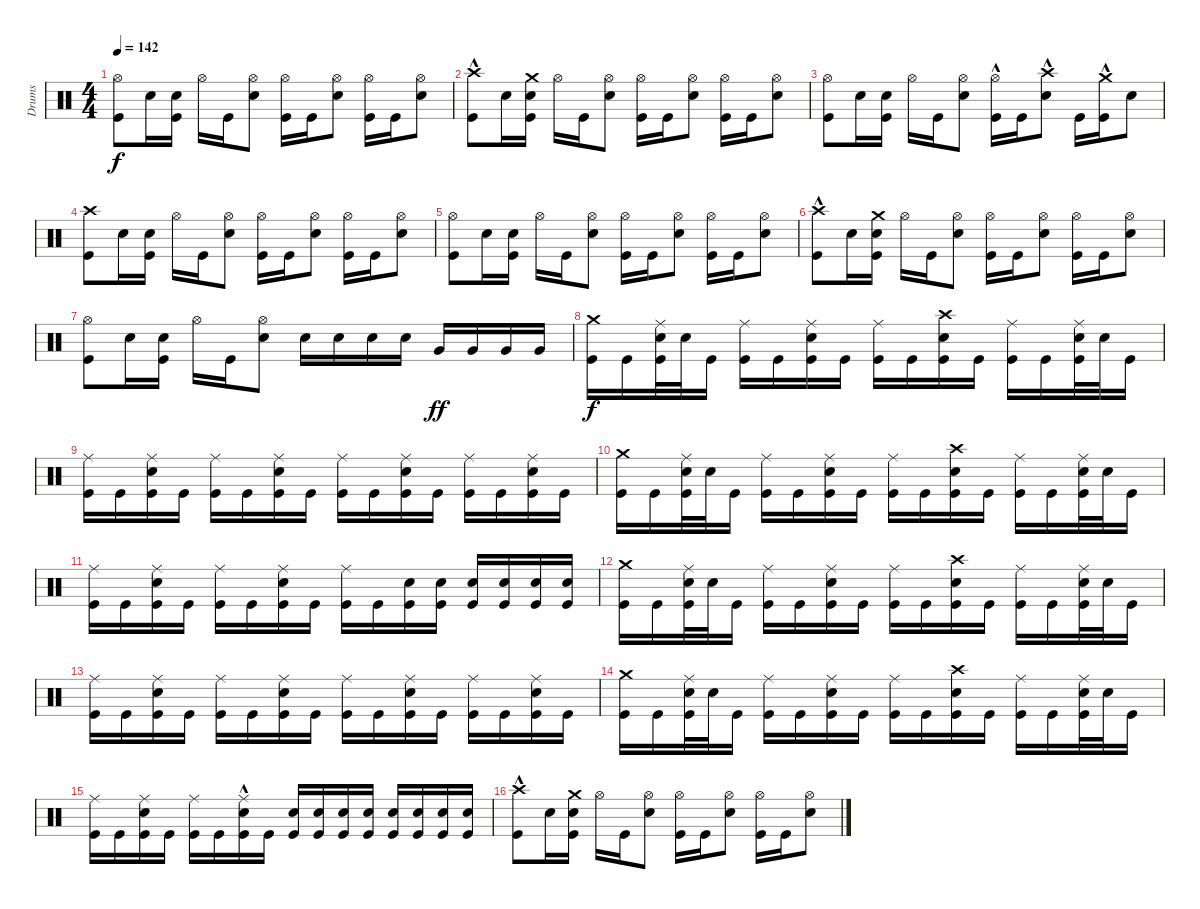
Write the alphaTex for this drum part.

\track ("Drums" "Drums") {instrument percussion}
\staff {score}
\articulation defaults
\ts (4 4)
\tempo 142
\clef neutral
\ks c
("Hi-Hat (open)" "Kick (hit)").8{dy f} "Snare (hit) 2".16 ("Snare (hit) 2" "Kick (hit)").16 "Hi-Hat (open)".16 "Kick (hit)".16 ("Hi-Hat (open)" "Snare (hit) 2").8 ("Hi-Hat (open)" "Kick (hit)").16 "Kick (hit)".16 ("Hi-Hat (open)" "Snare (hit) 2").8 ("Hi-Hat (open)" "Kick (hit)").16 "Kick (hit)".16 ("Hi-Hat (open)" "Snare (hit) 2").8 |
("Crash high (hit)"{hac} "Kick (hit)").8 "Snare (hit) 2".16 ("Crash medium (hit)" "Snare (hit) 2" "Kick (hit)").16 "Hi-Hat (open)".16 "Kick (hit)".16 ("Hi-Hat (open)" "Snare (hit) 2").8 ("Hi-Hat (open)" "Kick (hit)").16 "Kick (hit)".16 ("Hi-Hat (open)" "Snare (hit) 2").8 ("Hi-Hat (open)" "Kick (hit)").16 "Kick (hit)".16 ("Hi-Hat (open)" "Snare (hit) 2").8 |
("Hi-Hat (open)" "Kick (hit)").8 "Snare (hit) 2".16 ("Snare (hit) 2" "Kick (hit)").16 "Hi-Hat (open)".16 "Kick (hit)".16 ("Hi-Hat (open)" "Snare (hit) 2").8 ("Hi-Hat (open)"{hac} "Kick (hit)").16 "Kick (hit)".16 ("Crash high (hit)"{hac} "Snare (hit) 2").8 "Kick (hit)".16 ("Crash medium (hit)"{hac} "Kick (hit)").16 "Snare (hit) 2".8 |
("Crash high (hit)" "Kick (hit)").8 "Snare (hit) 2".16 ("Snare (hit) 2" "Kick (hit)").16 "Hi-Hat (open)".16 "Kick (hit)".16 ("Hi-Hat (open)" "Snare (hit) 2").8 ("Hi-Hat (open)" "Kick (hit)").16 "Kick (hit)".16 ("Hi-Hat (open)" "Snare (hit) 2").8 ("Hi-Hat (open)" "Kick (hit)").16 "Kick (hit)".16 ("Hi-Hat (open)" "Snare (hit) 2").8 |
("Hi-Hat (open)" "Kick (hit)").8 "Snare (hit) 2".16 ("Snare (hit) 2" "Kick (hit)").16 "Hi-Hat (open)".16 "Kick (hit)".16 ("Hi-Hat (open)" "Snare (hit) 2").8 ("Hi-Hat (open)" "Kick (hit)").16 "Kick (hit)".16 ("Hi-Hat (open)" "Snare (hit) 2").8 ("Hi-Hat (open)" "Kick (hit)").16 "Kick (hit)".16 ("Hi-Hat (open)" "Snare (hit) 2").8 |
("Crash high (hit)"{hac} "Kick (hit)").8 "Snare (hit) 2".16 ("Crash medium (hit)" "Snare (hit) 2" "Kick (hit)").16 "Hi-Hat (open)".16 "Kick (hit)".16 ("Hi-Hat (open)" "Snare (hit) 2").8 ("Hi-Hat (open)" "Kick (hit)").16 "Kick (hit)".16 ("Hi-Hat (open)" "Snare (hit) 2").8 ("Hi-Hat (open)" "Kick (hit)").16 "Kick (hit)".16 ("Hi-Hat (open)" "Snare (hit) 2").8 |
("Hi-Hat (open)" "Kick (hit)").8 "Snare (hit) 2".16 ("Snare (hit) 2" "Kick (hit)").16 "Hi-Hat (open)".16 "Kick (hit)".16 ("Hi-Hat (open)" "Snare (hit) 2").8 "Snare (hit) 2".16 "Snare (hit) 2".16 "Snare (hit) 2".16 "Snare (hit) 2".16 "Very Low Tom (hit)".16{dy ff} "Very Low Tom (hit)".16 "Very Low Tom (hit)".16 "Very Low Tom (hit)".16 |
("Crash medium (hit)" "Kick (hit)").16{dy f} "Kick (hit)".16 ("Ride (middle)" "Snare (hit) 2" "Kick (hit)").32 "Snare (hit) 2".32 "Kick (hit)".16 ("Ride (middle)" "Kick (hit)").16 "Kick (hit)".16 ("Ride (middle)" "Snare (hit) 2" "Kick (hit)").16 "Kick (hit)".16 ("Ride (middle)" "Kick (hit)").16 "Kick (hit)".16 ("Crash high (hit)" "Snare (hit) 2" "Kick (hit)").16 "Kick (hit)".16 ("Ride (middle)" "Kick (hit)").16 "Kick (hit)".16 ("Ride (middle)" "Snare (hit) 2" "Kick (hit)").32 "Snare (hit) 2".32 "Kick (hit)".16 |
("Ride (middle)" "Kick (hit)").16 "Kick (hit)".16 ("Ride (middle)" "Snare (hit) 2" "Kick (hit)").16 "Kick (hit)".16 ("Ride (middle)" "Kick (hit)").16 "Kick (hit)".16 ("Ride (middle)" "Snare (hit) 2" "Kick (hit)").16 "Kick (hit)".16 ("Ride (middle)" "Kick (hit)").16 "Kick (hit)".16 ("Ride (middle)" "Snare (hit) 2" "Kick (hit)").16 "Kick (hit)".16 ("Ride (middle)" "Kick (hit)").16 "Kick (hit)".16 ("Ride (middle)" "Snare (hit) 2" "Kick (hit)").16 "Kick (hit)".16 |
("Crash medium (hit)" "Kick (hit)").16 "Kick (hit)".16 ("Ride (middle)" "Snare (hit) 2" "Kick (hit)").32 "Snare (hit) 2".32 "Kick (hit)".16 ("Ride (middle)" "Kick (hit)").16 "Kick (hit)".16 ("Ride (middle)" "Snare (hit) 2" "Kick (hit)").16 "Kick (hit)".16 ("Ride (middle)" "Kick (hit)").16 "Kick (hit)".16 ("Crash high (hit)" "Snare (hit) 2" "Kick (hit)").16 "Kick (hit)".16 ("Ride (middle)" "Kick (hit)").16 "Kick (hit)".16 ("Ride (middle)" "Snare (hit) 2" "Kick (hit)").32 "Snare (hit) 2".32 "Kick (hit)".16 |
("Ride (middle)" "Kick (hit)").16 "Kick (hit)".16 ("Ride (middle)" "Snare (hit) 2" "Kick (hit)").16 "Kick (hit)".16 ("Ride (middle)" "Kick (hit)").16 "Kick (hit)".16 ("Ride (middle)" "Snare (hit) 2" "Kick (hit)").16 "Kick (hit)".16 ("Ride (middle)" "Kick (hit)").16 "Kick (hit)".16 ("Snare (hit) 2" "Kick (hit)").16 ("Snare (hit) 2" "Kick (hit)").16 ("Snare (hit) 2" "Kick (hit)").16 ("Snare (hit) 2" "Kick (hit)").16 ("Snare (hit) 2" "Kick (hit)").16 ("Snare (hit) 2" "Kick (hit)").16 |
("Crash medium (hit)" "Kick (hit)").16 "Kick (hit)".16 ("Ride (middle)" "Snare (hit) 2" "Kick (hit)").32 "Snare (hit) 2".32 "Kick (hit)".16 ("Ride (middle)" "Kick (hit)").16 "Kick (hit)".16 ("Ride (middle)" "Snare (hit) 2" "Kick (hit)").16 "Kick (hit)".16 ("Ride (middle)" "Kick (hit)").16 "Kick (hit)".16 ("Crash high (hit)" "Snare (hit) 2" "Kick (hit)").16 "Kick (hit)".16 ("Ride (middle)" "Kick (hit)").16 "Kick (hit)".16 ("Ride (middle)" "Snare (hit) 2" "Kick (hit)").32 "Snare (hit) 2".32 "Kick (hit)".16 |
("Ride (middle)" "Kick (hit)").16 "Kick (hit)".16 ("Ride (middle)" "Snare (hit) 2" "Kick (hit)").16 "Kick (hit)".16 ("Ride (middle)" "Kick (hit)").16 "Kick (hit)".16 ("Ride (middle)" "Snare (hit) 2" "Kick (hit)").16 "Kick (hit)".16 ("Ride (middle)" "Kick (hit)").16 "Kick (hit)".16 ("Ride (middle)" "Snare (hit) 2" "Kick (hit)").16 "Kick (hit)".16 ("Ride (middle)" "Kick (hit)").16 "Kick (hit)".16 ("Ride (middle)" "Snare (hit) 2" "Kick (hit)").16 "Kick (hit)".16 |
("Crash medium (hit)" "Kick (hit)").16 "Kick (hit)".16 ("Ride (middle)" "Snare (hit) 2" "Kick (hit)").32 "Snare (hit) 2".32 "Kick (hit)".16 ("Ride (middle)" "Kick (hit)").16 "Kick (hit)".16 ("Ride (middle)" "Snare (hit) 2" "Kick (hit)").16 "Kick (hit)".16 ("Ride (middle)" "Kick (hit)").16 "Kick (hit)".16 ("Crash high (hit)" "Snare (hit) 2" "Kick (hit)").16 "Kick (hit)".16 ("Ride (middle)" "Kick (hit)").16 "Kick (hit)".16 ("Ride (middle)" "Snare (hit) 2" "Kick (hit)").32 "Snare (hit) 2".32 "Kick (hit)".16 |
("Ride (middle)" "Kick (hit)").16 "Kick (hit)".16 ("Ride (middle)" "Snare (hit) 2" "Kick (hit)").16 "Kick (hit)".16 ("Ride (middle)" "Kick (hit)").16 "Kick (hit)".16 ("Ride (middle)"{hac} "Snare (hit) 2" "Kick (hit)").16 "Kick (hit)".16 ("Snare (hit) 2" "Kick (hit)").16 ("Snare (hit) 2" "Kick (hit)").16 ("Snare (hit) 2" "Kick (hit)").16 ("Snare (hit) 2" "Kick (hit)").16 ("Snare (hit) 2" "Kick (hit)").16 ("Snare (hit) 2" "Kick (hit)").16 ("Snare (hit) 2" "Kick (hit)").16 ("Snare (hit) 2" "Kick (hit)").16 |
("Crash high (hit)"{hac} "Kick (hit)").8 "Snare (hit) 2".16 ("Crash medium (hit)" "Snare (hit) 2" "Kick (hit)").16 "Hi-Hat (open)".16 "Kick (hit)".16 ("Hi-Hat (open)" "Snare (hit) 2").8 ("Hi-Hat (open)" "Kick (hit)").16 "Kick (hit)".16 ("Hi-Hat (open)" "Snare (hit) 2").8 ("Hi-Hat (open)" "Kick (hit)").16 "Kick (hit)".16 ("Hi-Hat (open)" "Snare (hit) 2").8
